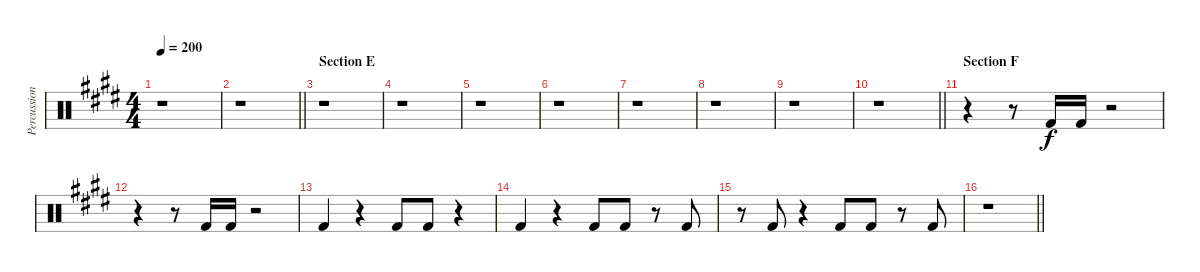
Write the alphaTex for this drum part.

\track ("Percussion - bass drum" "Percussion") {instrument percussion}
\staff {score}
\articulation defaults
\ts (4 4)
\tempo 200
\clef neutral
\ks e
r.1{dy f} |
\barLineRight lightlight
r.1 |
\section ("" "Section E")
r.1 |
r.1 |
r.1 |
r.1 |
r.1 |
r.1 |
r.1 |
\barLineRight lightlight
r.1 |
\section ("" "Section F")
r.4 r.8 "Kick (hit) 2".16 "Kick (hit) 2".16 r.2 |
r.4 r.8 "Kick (hit) 2".16 "Kick (hit) 2".16 r.2 |
"Kick (hit) 2".4 r.4 "Kick (hit) 2".8 "Kick (hit) 2".8 r.4 |
"Kick (hit) 2".4 r.4 "Kick (hit) 2".8 "Kick (hit) 2".8 r.8 "Kick (hit) 2".8 |
r.8 "Kick (hit) 2".8 r.4 "Kick (hit) 2".8 "Kick (hit) 2".8 r.8 "Kick (hit) 2".8 |
\barLineRight lightlight
r.1
